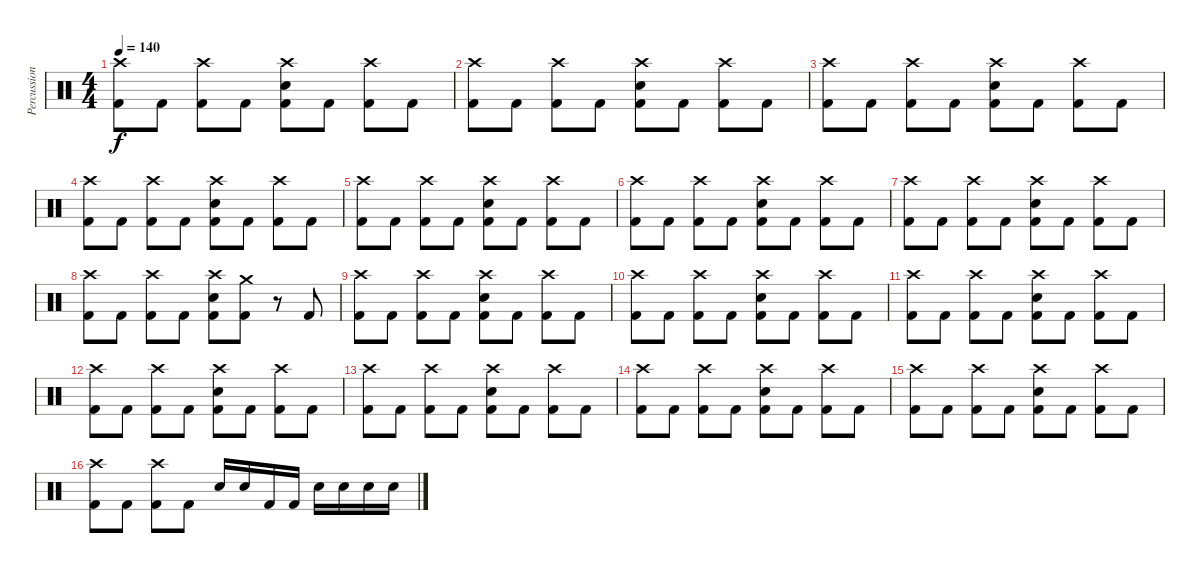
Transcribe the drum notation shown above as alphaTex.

\track ("Percussion" "Percussion") {instrument percussion}
\staff {score}
\articulation defaults
\ts (4 4)
\tempo 140
\clef neutral
\ks c
("Crash high (hit)" "Kick (hit) 2").8{dy f} "Kick (hit) 2".8 ("Crash high (hit)" "Kick (hit) 2").8 "Kick (hit) 2".8 ("Crash high (hit)" "Electric Snare (hit)" "Kick (hit) 2").8 "Kick (hit) 2".8 ("Crash high (hit)" "Kick (hit) 2").8 "Kick (hit) 2".8 |
("Crash high (hit)" "Kick (hit) 2").8 "Kick (hit) 2".8 ("Crash high (hit)" "Kick (hit) 2").8 "Kick (hit) 2".8 ("Crash high (hit)" "Electric Snare (hit)" "Kick (hit) 2").8 "Kick (hit) 2".8 ("Crash high (hit)" "Kick (hit) 2").8 "Kick (hit) 2".8 |
("Crash high (hit)" "Kick (hit) 2").8 "Kick (hit) 2".8 ("Crash high (hit)" "Kick (hit) 2").8 "Kick (hit) 2".8 ("Crash high (hit)" "Electric Snare (hit)" "Kick (hit) 2").8 "Kick (hit) 2".8 ("Crash high (hit)" "Kick (hit) 2").8 "Kick (hit) 2".8 |
("Crash high (hit)" "Kick (hit) 2").8 "Kick (hit) 2".8 ("Crash high (hit)" "Kick (hit) 2").8 "Kick (hit) 2".8 ("Crash high (hit)" "Electric Snare (hit)" "Kick (hit) 2").8 "Kick (hit) 2".8 ("Crash high (hit)" "Kick (hit) 2").8 "Kick (hit) 2".8 |
("Crash high (hit)" "Kick (hit) 2").8 "Kick (hit) 2".8 ("Crash high (hit)" "Kick (hit) 2").8 "Kick (hit) 2".8 ("Crash high (hit)" "Electric Snare (hit)" "Kick (hit) 2").8 "Kick (hit) 2".8 ("Crash high (hit)" "Kick (hit) 2").8 "Kick (hit) 2".8 |
("Crash high (hit)" "Kick (hit) 2").8 "Kick (hit) 2".8 ("Crash high (hit)" "Kick (hit) 2").8 "Kick (hit) 2".8 ("Crash high (hit)" "Electric Snare (hit)" "Kick (hit) 2").8 "Kick (hit) 2".8 ("Crash high (hit)" "Kick (hit) 2").8 "Kick (hit) 2".8 |
("Crash high (hit)" "Kick (hit) 2").8 "Kick (hit) 2".8 ("Crash high (hit)" "Kick (hit) 2").8 "Kick (hit) 2".8 ("Crash high (hit)" "Electric Snare (hit)" "Kick (hit) 2").8 "Kick (hit) 2".8 ("Crash high (hit)" "Kick (hit) 2").8 "Kick (hit) 2".8 |
("Crash high (hit)" "Kick (hit) 2").8 "Kick (hit) 2".8 ("Crash high (hit)" "Kick (hit) 2").8 "Kick (hit) 2".8 ("Crash high (hit)" "Electric Snare (hit)" "Kick (hit) 2").8 ("Crash medium (hit)" "Kick (hit) 2").8 r.8 "Kick (hit) 2".8 |
("Crash high (hit)" "Kick (hit) 2").8 "Kick (hit) 2".8 ("Crash high (hit)" "Kick (hit) 2").8 "Kick (hit) 2".8 ("Crash high (hit)" "Electric Snare (hit)" "Kick (hit) 2").8 "Kick (hit) 2".8 ("Crash high (hit)" "Kick (hit) 2").8 "Kick (hit) 2".8 |
("Crash high (hit)" "Kick (hit) 2").8 "Kick (hit) 2".8 ("Crash high (hit)" "Kick (hit) 2").8 "Kick (hit) 2".8 ("Crash high (hit)" "Electric Snare (hit)" "Kick (hit) 2").8 "Kick (hit) 2".8 ("Crash high (hit)" "Kick (hit) 2").8 "Kick (hit) 2".8 |
("Crash high (hit)" "Kick (hit) 2").8 "Kick (hit) 2".8 ("Crash high (hit)" "Kick (hit) 2").8 "Kick (hit) 2".8 ("Crash high (hit)" "Electric Snare (hit)" "Kick (hit) 2").8 "Kick (hit) 2".8 ("Crash high (hit)" "Kick (hit) 2").8 "Kick (hit) 2".8 |
("Crash high (hit)" "Kick (hit) 2").8 "Kick (hit) 2".8 ("Crash high (hit)" "Kick (hit) 2").8 "Kick (hit) 2".8 ("Crash high (hit)" "Electric Snare (hit)" "Kick (hit) 2").8 "Kick (hit) 2".8 ("Crash high (hit)" "Kick (hit) 2").8 "Kick (hit) 2".8 |
("Crash high (hit)" "Kick (hit) 2").8 "Kick (hit) 2".8 ("Crash high (hit)" "Kick (hit) 2").8 "Kick (hit) 2".8 ("Crash high (hit)" "Electric Snare (hit)" "Kick (hit) 2").8 "Kick (hit) 2".8 ("Crash high (hit)" "Kick (hit) 2").8 "Kick (hit) 2".8 |
("Crash high (hit)" "Kick (hit) 2").8 "Kick (hit) 2".8 ("Crash high (hit)" "Kick (hit) 2").8 "Kick (hit) 2".8 ("Crash high (hit)" "Electric Snare (hit)" "Kick (hit) 2").8 "Kick (hit) 2".8 ("Crash high (hit)" "Kick (hit) 2").8 "Kick (hit) 2".8 |
("Crash high (hit)" "Kick (hit) 2").8 "Kick (hit) 2".8 ("Crash high (hit)" "Kick (hit) 2").8 "Kick (hit) 2".8 ("Crash high (hit)" "Electric Snare (hit)" "Kick (hit) 2").8 "Kick (hit) 2".8 ("Crash high (hit)" "Kick (hit) 2").8 "Kick (hit) 2".8 |
("Crash high (hit)" "Kick (hit) 2").8 "Kick (hit) 2".8 ("Crash high (hit)" "Kick (hit) 2").8 "Kick (hit) 2".8 "Electric Snare (hit)".16 "Electric Snare (hit)".16 "Kick (hit) 2".16 "Kick (hit) 2".16 "Electric Snare (hit)".16 "Electric Snare (hit)".16 "Electric Snare (hit)".16 "Electric Snare (hit)".16
